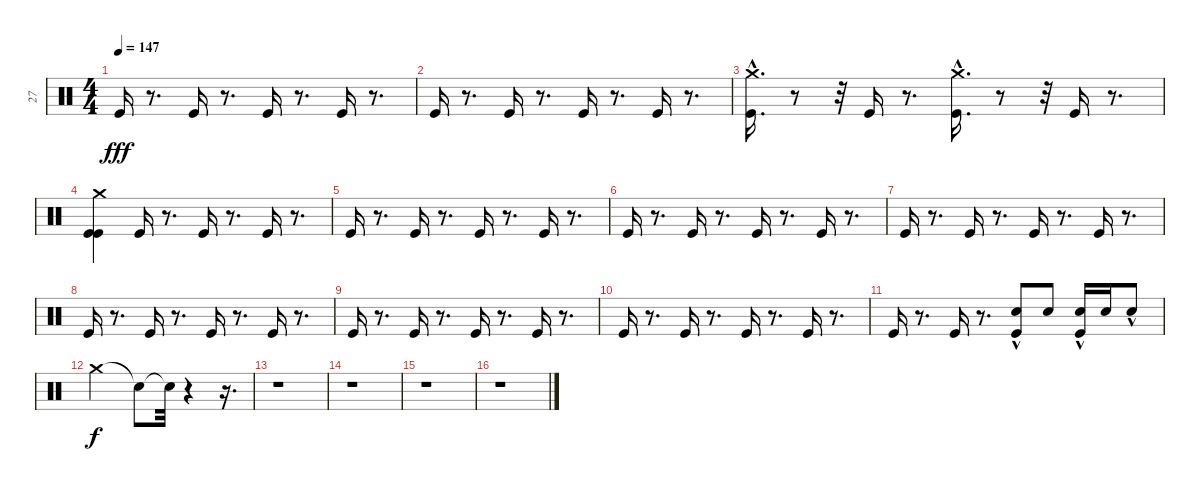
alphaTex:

\track ("27" "27") {instrument percussion}
\staff {score}
\articulation defaults
\ts (4 4)
\tempo 147
\clef neutral
\ks c "Kick (hit)".16{dy fff}
r.8{d} "Kick (hit)".16 r.8{d} "Kick (hit)".16 r.8{d} "Kick (hit)".16 r.8{d} |
"Kick (hit)".16 r.8{d} "Kick (hit)".16 r.8{d} "Kick (hit)".16 r.8{d} "Kick (hit)".16 r.8{d} |
("Crash medium (hit)"{hac} "Kick (hit)").16{d} r.8 r.32 "Kick (hit)".16 r.8{d} ("Crash medium (hit)"{hac} "Kick (hit)").16{d} r.8 r.32 "Kick (hit)".16 r.8{d} |
("Crash medium (hit)" "Kick (hit)" "Kick (hit)").4 "Kick (hit)".16 r.8{d} "Kick (hit)".16 r.8{d} "Kick (hit)".16 r.8{d} |
"Kick (hit)".16 r.8{d} "Kick (hit)".16 r.8{d} "Kick (hit)".16 r.8{d} "Kick (hit)".16 r.8{d} |
"Kick (hit)".16 r.8{d} "Kick (hit)".16 r.8{d} "Kick (hit)".16 r.8{d} "Kick (hit)".16 r.8{d} |
"Kick (hit)".16 r.8{d} "Kick (hit)".16 r.8{d} "Kick (hit)".16 r.8{d} "Kick (hit)".16 r.8{d} |
"Kick (hit)".16 r.8{d} "Kick (hit)".16 r.8{d} "Kick (hit)".16 r.8{d} "Kick (hit)".16 r.8{d} |
"Kick (hit)".16 r.8{d} "Kick (hit)".16 r.8{d} "Kick (hit)".16 r.8{d} "Kick (hit)".16 r.8{d} |
"Kick (hit)".16 r.8{d} "Kick (hit)".16 r.8{d} "Kick (hit)".16 r.8{d} "Kick (hit)".16 r.8{d} |
"Kick (hit)".16 r.8{d} "Kick (hit)".16 r.8{d} ("Kick (hit)"{hac} "Snare (hit)").8 "Snare (hit)".8 ("Kick (hit)"{hac} "Snare (hit)").16 "Snare (hit)".16 "Snare (hit)"{hac}.8 |
"Crash medium (hit)".2{dy f} "Snare (hit)"{t}.8 "Snare (hit)"{t}.32 r.4 r.16{d} |
r.1 |
r.1 |
r.1 |
r.1
